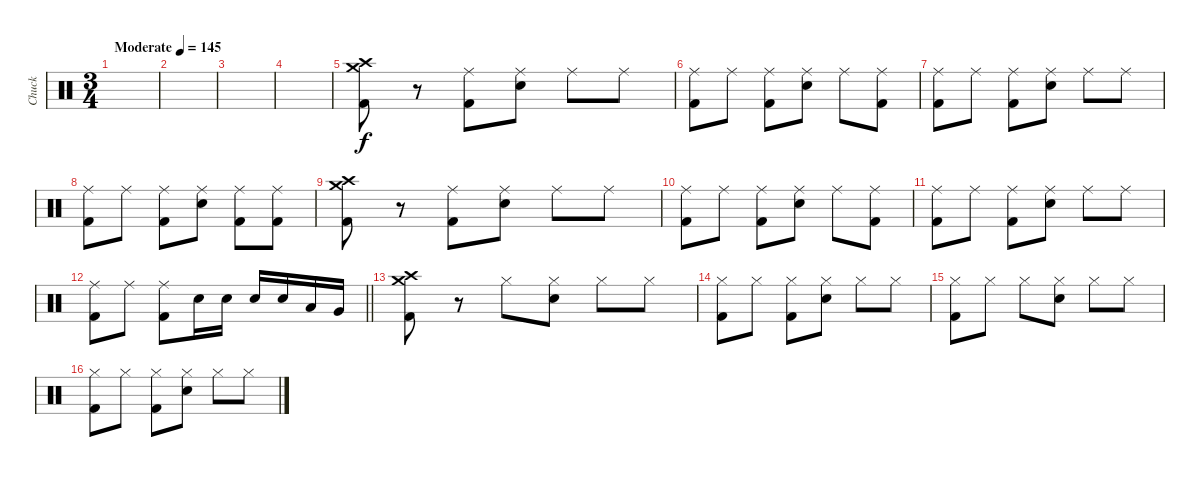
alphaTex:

\track ("Chuck" "Chuck") {instrument percussion}
\staff {score}
\articulation defaults
\ts (3 4)
\tempo (145 "Moderate")
\clef neutral
\ks c
|
|
|
|
("Crash medium (hit)" "Crash high (hit)" "Kick (hit) 2").8 r.8 ("Ride (middle)" "Kick (hit) 2").8 ("Ride (middle)" "Electric Snare (hit)").8 "Ride (middle)".8 "Ride (middle)".8 |
("Ride (middle)" "Kick (hit) 2").8 "Ride (middle)".8 ("Ride (middle)" "Kick (hit) 2").8 ("Ride (middle)" "Electric Snare (hit)").8 "Ride (middle)".8 ("Ride (middle)" "Kick (hit) 2").8 |
("Ride (middle)" "Kick (hit) 2").8 "Ride (middle)".8 ("Ride (middle)" "Kick (hit) 2").8 ("Ride (middle)" "Electric Snare (hit)").8 "Ride (middle)".8 "Ride (middle)".8 |
("Ride (middle)" "Kick (hit) 2").8 "Ride (middle)".8 ("Ride (middle)" "Kick (hit) 2").8 ("Ride (middle)" "Electric Snare (hit)").8 ("Ride (middle)" "Kick (hit) 2").8 ("Ride (middle)" "Kick (hit) 2").8 |
("Crash medium (hit)" "Crash high (hit)" "Kick (hit) 2").8 r.8 ("Ride (middle)" "Kick (hit) 2").8 ("Ride (middle)" "Electric Snare (hit)").8 "Ride (middle)".8 "Ride (middle)".8 |
("Ride (middle)" "Kick (hit) 2").8 "Ride (middle)".8 ("Ride (middle)" "Kick (hit) 2").8 ("Ride (middle)" "Electric Snare (hit)").8 "Ride (middle)".8 ("Ride (middle)" "Kick (hit) 2").8 |
("Ride (middle)" "Kick (hit) 2").8 "Ride (middle)".8 ("Ride (middle)" "Kick (hit) 2").8 ("Ride (middle)" "Electric Snare (hit)").8 "Ride (middle)".8 "Ride (middle)".8 |
\barLineRight lightlight
("Ride (middle)" "Kick (hit) 2").8 "Ride (middle)".8 ("Ride (middle)" "Kick (hit) 2").8 "Electric Snare (hit)".16 "Electric Snare (hit)".16 "Electric Snare (hit)".16 "Electric Snare (hit)".16 "Low Tom (hit)".16 "Very Low Tom (hit)".16 |
("Crash medium (hit)" "Crash high (hit)" "Kick (hit) 2").8 r.8 "Hi-Hat (closed)".8 ("Hi-Hat (closed)" "Electric Snare (hit)").8 "Hi-Hat (closed)".8 "Hi-Hat (closed)".8 |
("Hi-Hat (closed)" "Kick (hit) 2").8 "Hi-Hat (closed)".8 ("Hi-Hat (closed)" "Kick (hit) 2").8 ("Hi-Hat (closed)" "Electric Snare (hit)").8 "Hi-Hat (closed)".8 "Hi-Hat (closed)".8 |
("Hi-Hat (closed)" "Kick (hit) 2").8 "Hi-Hat (closed)".8 "Hi-Hat (closed)".8 ("Hi-Hat (closed)" "Electric Snare (hit)").8 "Hi-Hat (closed)".8 "Hi-Hat (closed)".8 |
("Hi-Hat (closed)" "Kick (hit) 2").8 "Hi-Hat (closed)".8 ("Hi-Hat (closed)" "Kick (hit) 2").8 ("Hi-Hat (closed)" "Electric Snare (hit)").8 "Hi-Hat (closed)".8 "Hi-Hat (closed)".8
